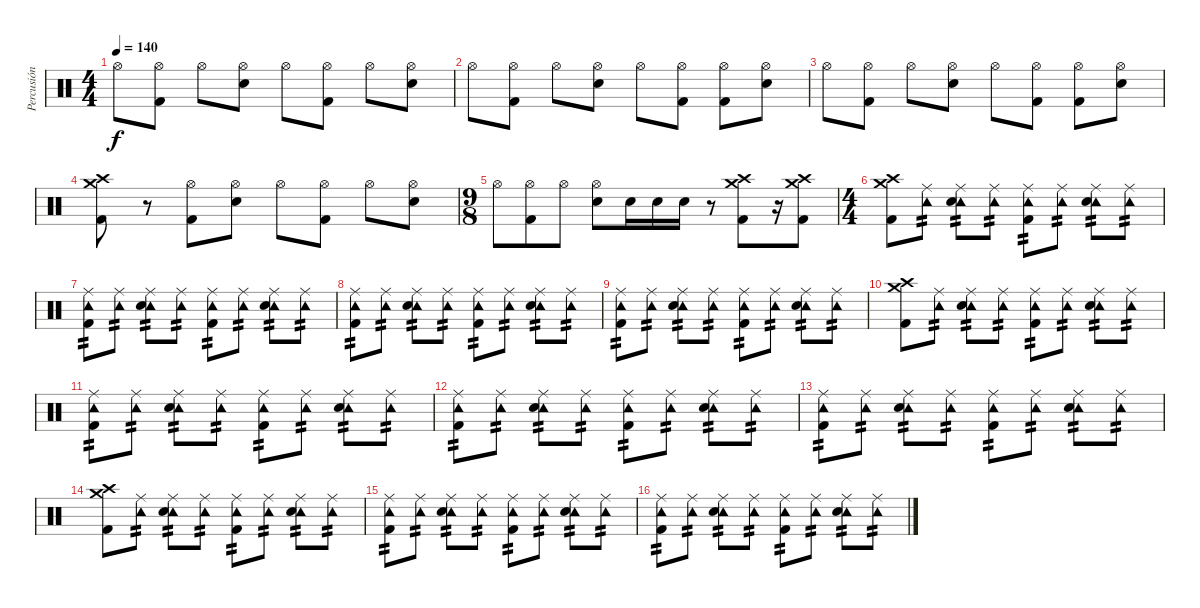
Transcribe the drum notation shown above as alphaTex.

\track ("Percusión" "Percusión") {instrument percussion}
\staff {score}
\articulation defaults
\ts (4 4)
\tempo 140
\clef neutral
\ks c "Hi-Hat (open)".8{dy f}
("Hi-Hat (open)" "Kick (hit) 2").8 "Hi-Hat (open)".8 ("Hi-Hat (open)" "Electric Snare (hit)").8 "Hi-Hat (open)".8 ("Hi-Hat (open)" "Kick (hit) 2").8 "Hi-Hat (open)".8 ("Hi-Hat (open)" "Electric Snare (hit)").8 |
"Hi-Hat (open)".8 ("Hi-Hat (open)" "Kick (hit) 2").8 "Hi-Hat (open)".8 ("Hi-Hat (open)" "Electric Snare (hit)").8 "Hi-Hat (open)".8 ("Hi-Hat (open)" "Kick (hit) 2").8 ("Hi-Hat (open)" "Kick (hit) 2").8 ("Hi-Hat (open)" "Electric Snare (hit)").8 |
"Hi-Hat (open)".8 ("Hi-Hat (open)" "Kick (hit) 2").8 "Hi-Hat (open)".8 ("Hi-Hat (open)" "Electric Snare (hit)").8 "Hi-Hat (open)".8 ("Hi-Hat (open)" "Kick (hit) 2").8 ("Hi-Hat (open)" "Kick (hit) 2").8 ("Hi-Hat (open)" "Electric Snare (hit)").8 |
("Crash high (hit)" "Crash medium (hit)" "Kick (hit) 2").8 r.8 ("Hi-Hat (open)" "Kick (hit) 2").8 ("Hi-Hat (open)" "Electric Snare (hit)").8 "Hi-Hat (open)".8 ("Hi-Hat (open)" "Kick (hit) 2").8 "Hi-Hat (open)".8 ("Hi-Hat (open)" "Electric Snare (hit)").8 |
\ts (9 8)
"Hi-Hat (open)".8 ("Hi-Hat (open)" "Kick (hit) 2").8 "Hi-Hat (open)".8 ("Hi-Hat (open)" "Electric Snare (hit)").8 "Electric Snare (hit)".16 "Electric Snare (hit)".16 "Electric Snare (hit)".16 r.8 ("Crash high (hit)" "Crash medium (hit)" "Kick (hit) 2").8 r.16 ("Crash high (hit)" "Crash medium (hit)" "Kick (hit) 2").8 |
\ts (4 4)
("Crash high (hit)" "Crash medium (hit)" "Kick (hit) 2").8 ("Tambourine (hit)" "Ride (middle)").8{tp 2} ("Tambourine (hit)" "Ride (middle)" "Electric Snare (hit)").8{tp 2} ("Tambourine (hit)" "Ride (middle)").8{tp 2} ("Tambourine (hit)" "Ride (middle)" "Kick (hit) 2").8{tp 2} ("Tambourine (hit)" "Ride (middle)").8{tp 2} ("Tambourine (hit)" "Ride (middle)" "Electric Snare (hit)").8{tp 2} ("Tambourine (hit)" "Ride (middle)").8{tp 2} |
("Tambourine (hit)" "Ride (middle)" "Kick (hit) 2").8{tp 2} ("Tambourine (hit)" "Ride (middle)").8{tp 2} ("Tambourine (hit)" "Ride (middle)" "Electric Snare (hit)").8{tp 2} ("Tambourine (hit)" "Ride (middle)").8{tp 2} ("Tambourine (hit)" "Ride (middle)" "Kick (hit) 2").8{tp 2} ("Tambourine (hit)" "Ride (middle)").8{tp 2} ("Tambourine (hit)" "Ride (middle)" "Electric Snare (hit)").8{tp 2} ("Tambourine (hit)" "Ride (middle)").8{tp 2} |
("Tambourine (hit)" "Ride (middle)" "Kick (hit) 2").8{tp 2} ("Tambourine (hit)" "Ride (middle)").8{tp 2} ("Tambourine (hit)" "Ride (middle)" "Electric Snare (hit)").8{tp 2} ("Tambourine (hit)" "Ride (middle)").8{tp 2} ("Tambourine (hit)" "Ride (middle)" "Kick (hit) 2").8{tp 2} ("Tambourine (hit)" "Ride (middle)").8{tp 2} ("Tambourine (hit)" "Ride (middle)" "Electric Snare (hit)").8{tp 2} ("Tambourine (hit)" "Ride (middle)").8{tp 2} |
("Tambourine (hit)" "Ride (middle)" "Kick (hit) 2").8{tp 2} ("Tambourine (hit)" "Ride (middle)").8{tp 2} ("Tambourine (hit)" "Ride (middle)" "Electric Snare (hit)").8{tp 2} ("Tambourine (hit)" "Ride (middle)").8{tp 2} ("Tambourine (hit)" "Ride (middle)" "Kick (hit) 2").8{tp 2} ("Tambourine (hit)" "Ride (middle)").8{tp 2} ("Tambourine (hit)" "Ride (middle)" "Electric Snare (hit)").8{tp 2} ("Tambourine (hit)" "Ride (middle)").8{tp 2} |
("Crash high (hit)" "Crash medium (hit)" "Kick (hit) 2").8 ("Tambourine (hit)" "Ride (middle)").8{tp 2} ("Tambourine (hit)" "Ride (middle)" "Electric Snare (hit)").8{tp 2} ("Tambourine (hit)" "Ride (middle)").8{tp 2} ("Tambourine (hit)" "Ride (middle)" "Kick (hit) 2").8{tp 2} ("Tambourine (hit)" "Ride (middle)").8{tp 2} ("Tambourine (hit)" "Ride (middle)" "Electric Snare (hit)").8{tp 2} ("Tambourine (hit)" "Ride (middle)").8{tp 2} |
("Tambourine (hit)" "Ride (middle)" "Kick (hit) 2").8{tp 2} ("Tambourine (hit)" "Ride (middle)").8{tp 2} ("Tambourine (hit)" "Ride (middle)" "Electric Snare (hit)").8{tp 2} ("Tambourine (hit)" "Ride (middle)").8{tp 2} ("Tambourine (hit)" "Ride (middle)" "Kick (hit) 2").8{tp 2} ("Tambourine (hit)" "Ride (middle)").8{tp 2} ("Tambourine (hit)" "Ride (middle)" "Electric Snare (hit)").8{tp 2} ("Tambourine (hit)" "Ride (middle)").8{tp 2} |
("Tambourine (hit)" "Ride (middle)" "Kick (hit) 2").8{tp 2} ("Tambourine (hit)" "Ride (middle)").8{tp 2} ("Tambourine (hit)" "Ride (middle)" "Electric Snare (hit)").8{tp 2} ("Tambourine (hit)" "Ride (middle)").8{tp 2} ("Tambourine (hit)" "Ride (middle)" "Kick (hit) 2").8{tp 2} ("Tambourine (hit)" "Ride (middle)").8{tp 2} ("Tambourine (hit)" "Ride (middle)" "Electric Snare (hit)").8{tp 2} ("Tambourine (hit)" "Ride (middle)").8{tp 2} |
("Tambourine (hit)" "Ride (middle)" "Kick (hit) 2").8{tp 2} ("Tambourine (hit)" "Ride (middle)").8{tp 2} ("Tambourine (hit)" "Ride (middle)" "Electric Snare (hit)").8{tp 2} ("Tambourine (hit)" "Ride (middle)").8{tp 2} ("Tambourine (hit)" "Ride (middle)" "Kick (hit) 2").8{tp 2} ("Tambourine (hit)" "Ride (middle)").8{tp 2} ("Tambourine (hit)" "Ride (middle)" "Electric Snare (hit)").8{tp 2} ("Tambourine (hit)" "Ride (middle)").8{tp 2} |
("Crash high (hit)" "Crash medium (hit)" "Kick (hit) 2").8 ("Tambourine (hit)" "Ride (middle)").8{tp 2} ("Tambourine (hit)" "Ride (middle)" "Electric Snare (hit)").8{tp 2} ("Tambourine (hit)" "Ride (middle)").8{tp 2} ("Tambourine (hit)" "Ride (middle)" "Kick (hit) 2").8{tp 2} ("Tambourine (hit)" "Ride (middle)").8{tp 2} ("Tambourine (hit)" "Ride (middle)" "Electric Snare (hit)").8{tp 2} ("Tambourine (hit)" "Ride (middle)").8{tp 2} |
("Tambourine (hit)" "Ride (middle)" "Kick (hit) 2").8{tp 2} ("Tambourine (hit)" "Ride (middle)").8{tp 2} ("Tambourine (hit)" "Ride (middle)" "Electric Snare (hit)").8{tp 2} ("Tambourine (hit)" "Ride (middle)").8{tp 2} ("Tambourine (hit)" "Ride (middle)" "Kick (hit) 2").8{tp 2} ("Tambourine (hit)" "Ride (middle)").8{tp 2} ("Tambourine (hit)" "Ride (middle)" "Electric Snare (hit)").8{tp 2} ("Tambourine (hit)" "Ride (middle)").8{tp 2} |
("Tambourine (hit)" "Ride (middle)" "Kick (hit) 2").8{tp 2} ("Tambourine (hit)" "Ride (middle)").8{tp 2} ("Tambourine (hit)" "Ride (middle)" "Electric Snare (hit)").8{tp 2} ("Tambourine (hit)" "Ride (middle)").8{tp 2} ("Tambourine (hit)" "Ride (middle)" "Kick (hit) 2").8{tp 2} ("Tambourine (hit)" "Ride (middle)").8{tp 2} ("Tambourine (hit)" "Ride (middle)" "Electric Snare (hit)").8{tp 2} ("Tambourine (hit)" "Ride (middle)").8{tp 2}
